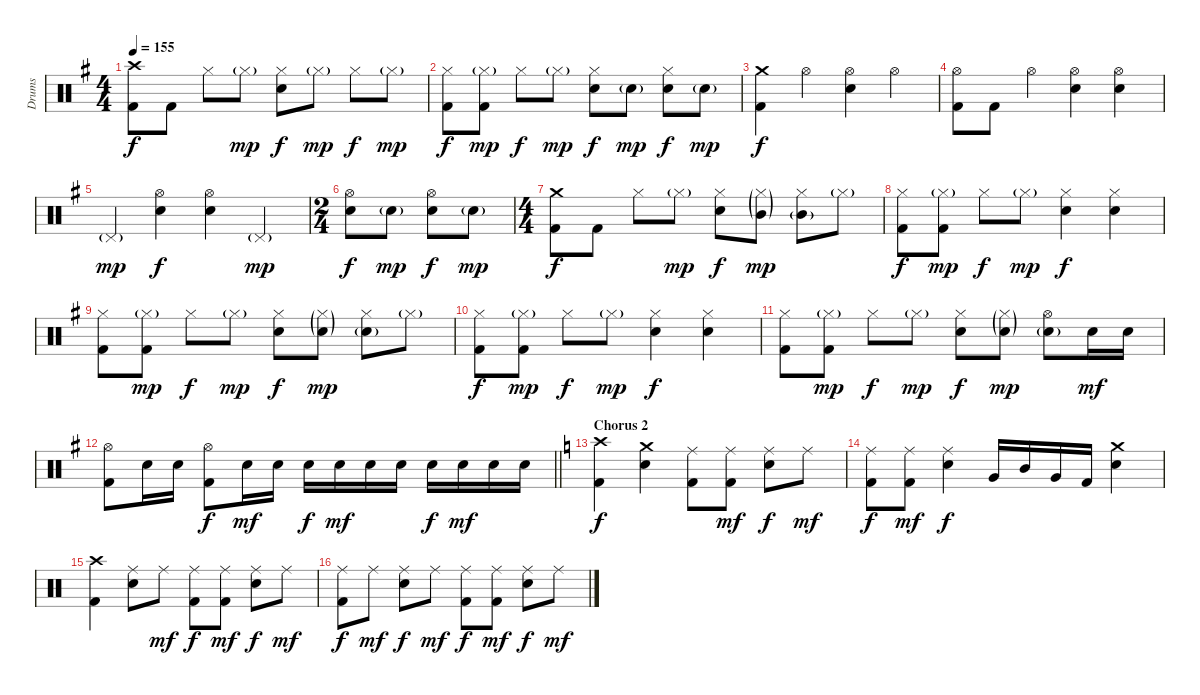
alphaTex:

\track ("Drums" "Drums") {instrument percussion}
\staff {score}
\articulation defaults
\ts (4 4)
\tempo 155
\clef neutral
\ks eminor
("Crash high (hit)" "Kick (hit) 2").8{dy f} "Kick (hit) 2".8 "Hi-Hat (closed)".8 "Hi-Hat (closed)"{g}.8{dy mp} ("Hi-Hat (closed)" "Electric Snare (hit)").8{dy f} "Hi-Hat (closed)"{g}.8{dy mp} "Hi-Hat (closed)".8{dy f} "Hi-Hat (closed)"{g}.8{dy mp} |
("Hi-Hat (closed)" "Kick (hit) 2").8{dy f} ("Hi-Hat (closed)"{g} "Kick (hit) 2").8{dy mp} "Hi-Hat (closed)".8{dy f} "Hi-Hat (closed)"{g}.8{dy mp} ("Hi-Hat (closed)" "Electric Snare (hit)").8{dy f} "Electric Snare (hit)"{g}.8{dy mp balance 16} ("Hi-Hat (closed)" "Electric Snare (hit)").8{dy f balance 8} "Electric Snare (hit)"{g}.8{dy mp balance 16} |
("Crash medium (hit)" "Kick (hit) 2").4{dy f balance 8} "Hi-Hat (open)".4 ("Hi-Hat (open)" "Electric Snare (hit)").4 "Hi-Hat (open)".4 |
("Hi-Hat (open)" "Kick (hit) 2").8 "Kick (hit) 2".8 "Hi-Hat (open)".4 ("Hi-Hat (open)" "Electric Snare (hit)").4 ("Hi-Hat (open)" "Electric Snare (hit)").4 |
"Pedal Hi-Hat (hit)"{g}.4{dy mp} ("Hi-Hat (open)" "Electric Snare (hit)").4{dy f} ("Hi-Hat (open)" "Electric Snare (hit)").4 "Pedal Hi-Hat (hit)"{g}.4{dy mp} |
\ts (2 4)
("Hi-Hat (open)" "Electric Snare (hit)").8{dy f} "Electric Snare (hit)"{g}.8{dy mp balance 16} ("Hi-Hat (open)" "Electric Snare (hit)").8{dy f balance 8} "Electric Snare (hit)"{g}.8{dy mp balance 16} |
\ts (4 4)
("Crash medium (hit)" "Kick (hit) 2").8{dy f balance 8} "Kick (hit) 2".8 "Hi-Hat (closed)".8 "Hi-Hat (closed)"{g}.8{dy mp} ("Hi-Hat (closed)" "Electric Snare (hit)").8{dy f} ("Hi-Hat (closed)"{g} "Mid Tom (hit)"{g}).8{dy mp} ("Hi-Hat (closed)" "Mid Tom (hit)"{g}).8 "Hi-Hat (closed)"{g}.8 |
("Hi-Hat (closed)" "Kick (hit) 2").8{dy f} ("Hi-Hat (closed)"{g} "Kick (hit) 2").8{dy mp} "Hi-Hat (closed)".8{dy f} "Hi-Hat (closed)"{g}.8{dy mp} ("Hi-Hat (closed)" "Electric Snare (hit)").4{dy f} ("Hi-Hat (closed)" "Electric Snare (hit)").4 |
("Hi-Hat (closed)" "Kick (hit) 2").8 ("Hi-Hat (closed)"{g} "Kick (hit) 2").8{dy mp} "Hi-Hat (closed)".8{dy f} "Hi-Hat (closed)"{g}.8{dy mp} ("Hi-Hat (closed)" "Electric Snare (hit)").8{dy f} ("Hi-Hat (closed)"{g} "Electric Snare (hit)"{g}).8{dy mp balance 16} ("Hi-Hat (closed)" "Electric Snare (hit)"{g}).8{balance 0} "Hi-Hat (closed)"{g}.8{balance 8} |
("Hi-Hat (closed)" "Kick (hit) 2").8{dy f} ("Hi-Hat (closed)"{g} "Kick (hit) 2").8{dy mp} "Hi-Hat (closed)".8{dy f} "Hi-Hat (closed)"{g}.8{dy mp} ("Hi-Hat (closed)" "Electric Snare (hit)").4{dy f} ("Hi-Hat (closed)" "Electric Snare (hit)").4 |
("Hi-Hat (closed)" "Kick (hit) 2").8 ("Hi-Hat (closed)"{g} "Kick (hit) 2").8{dy mp} "Hi-Hat (closed)".8{dy f} "Hi-Hat (closed)"{g}.8{dy mp} ("Hi-Hat (closed)" "Electric Snare (hit)").8{dy f} ("Hi-Hat (closed)"{g} "Electric Snare (hit)"{g}).8{dy mp balance 16} ("Hi-Hat (open)" "Electric Snare (hit)"{g}).8{balance 0} "Electric Snare (hit)".16{dy mf balance 8} "Electric Snare (hit)".16 |
\barLineRight lightlight
("Hi-Hat (open)" "Kick (hit) 2").8 "Electric Snare (hit)".16 "Electric Snare (hit)".16 ("Hi-Hat (open)" "Kick (hit) 2").8{dy f} "Electric Snare (hit)".16{dy mf} "Electric Snare (hit)".16 "Electric Snare (hit)".16{dy f} "Electric Snare (hit)".16{dy mf} "Electric Snare (hit)".16 "Electric Snare (hit)".16 "Electric Snare (hit)".16{dy f} "Electric Snare (hit)".16{dy mf} "Electric Snare (hit)".16 "Electric Snare (hit)".16 |
\section ("" "Chorus 2")
\ks aminor
("Crash high (hit)" "Kick (hit) 2").4{dy f} ("Crash medium (hit)" "Electric Snare (hit)").4 ("Ride (middle)" "Kick (hit) 2").8 ("Ride (middle)" "Kick (hit) 2").8{dy mf} ("Ride (middle)" "Electric Snare (hit)").8{dy f} "Ride (middle)".8{dy mf} |
("Ride (middle)" "Kick (hit) 2").8{dy f} ("Ride (middle)" "Kick (hit) 2").8{dy mf} ("Ride (middle)" "Electric Snare (hit)").4{dy f} "Very Low Tom (hit)".16 "Mid Tom (hit)".16 "Very Low Tom (hit)".16 "Kick (hit) 2".16 ("Crash medium (hit)" "Electric Snare (hit)").4 |
("Crash high (hit)" "Kick (hit) 2").4 ("Ride (middle)" "Electric Snare (hit)").8 "Ride (middle)".8{dy mf} ("Ride (middle)" "Kick (hit) 2").8{dy f} ("Ride (middle)" "Kick (hit) 2").8{dy mf} ("Ride (middle)" "Electric Snare (hit)").8{dy f} "Ride (middle)".8{dy mf} |
("Ride (middle)" "Kick (hit) 2").8{dy f} "Ride (middle)".8{dy mf} ("Ride (middle)" "Electric Snare (hit)").8{dy f} "Ride (middle)".8{dy mf} ("Ride (middle)" "Kick (hit) 2").8{dy f} ("Ride (middle)" "Kick (hit) 2").8{dy mf} ("Ride (middle)" "Electric Snare (hit)").8{dy f} "Ride (middle)".8{dy mf}
